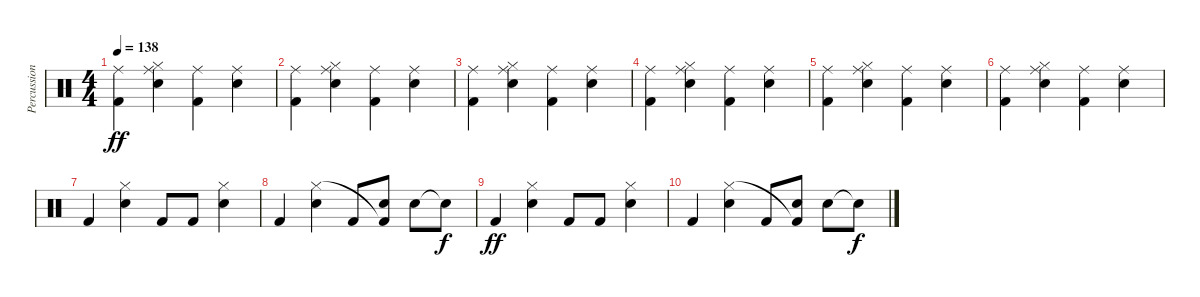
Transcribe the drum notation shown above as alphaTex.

\track ("Percussion" "Percussion") {instrument percussion}
\staff {score}
\articulation defaults
\ts (4 4)
\tempo 138
\clef neutral
\ks c
("Ride (middle)" "Kick (hit) 2").4{dy ff} ("Ride (middle)" "Snare (hit) 2" "Hi-Hat (closed)").4 ("Ride (middle)" "Kick (hit) 2").4 ("Ride (middle)" "Snare (hit) 2").4 |
("Ride (middle)" "Kick (hit) 2").4 ("Ride (middle)" "Snare (hit) 2" "Hi-Hat (closed)").4 ("Ride (middle)" "Kick (hit) 2").4 ("Ride (middle)" "Snare (hit) 2").4 |
("Ride (middle)" "Kick (hit) 2").4 ("Ride (middle)" "Snare (hit) 2" "Hi-Hat (closed)").4 ("Ride (middle)" "Kick (hit) 2").4 ("Ride (middle)" "Snare (hit) 2").4 |
("Ride (middle)" "Kick (hit) 2").4 ("Ride (middle)" "Snare (hit) 2" "Hi-Hat (closed)").4 ("Ride (middle)" "Kick (hit) 2").4 ("Ride (middle)" "Snare (hit) 2").4 |
("Ride (middle)" "Kick (hit) 2").4 ("Ride (middle)" "Snare (hit) 2" "Hi-Hat (closed)").4 ("Ride (middle)" "Kick (hit) 2").4 ("Ride (middle)" "Snare (hit) 2").4 |
("Ride (middle)" "Kick (hit) 2").4 ("Ride (middle)" "Snare (hit) 2" "Hi-Hat (closed)").4 ("Ride (middle)" "Kick (hit) 2").4 ("Ride (middle)" "Snare (hit) 2").4 |
"Kick (hit) 2".4 ("Snare (hit) 2" "Hi-Hat (closed)").4 "Kick (hit) 2".8 "Kick (hit) 2".8 ("Snare (hit) 2" "Hi-Hat (closed)").4 |
"Kick (hit) 2".4 ("Snare (hit) 2" "Hi-Hat (closed)").4 "Kick (hit) 2".8 ("Electric Snare (hit)" "Kick (hit) 2"{t}).8 "Electric Snare (hit)".8 "Electric Snare (hit)"{t}.8{dy f} |
"Kick (hit) 2".4{dy ff} ("Snare (hit) 2" "Hi-Hat (closed)").4 "Kick (hit) 2".8 "Kick (hit) 2".8 ("Snare (hit) 2" "Hi-Hat (closed)").4 |
"Kick (hit) 2".4 ("Snare (hit) 2" "Hi-Hat (closed)").4 "Kick (hit) 2".8 ("Electric Snare (hit)" "Kick (hit) 2"{t}).8 "Electric Snare (hit)".8 "Electric Snare (hit)"{t}.8{dy f}
